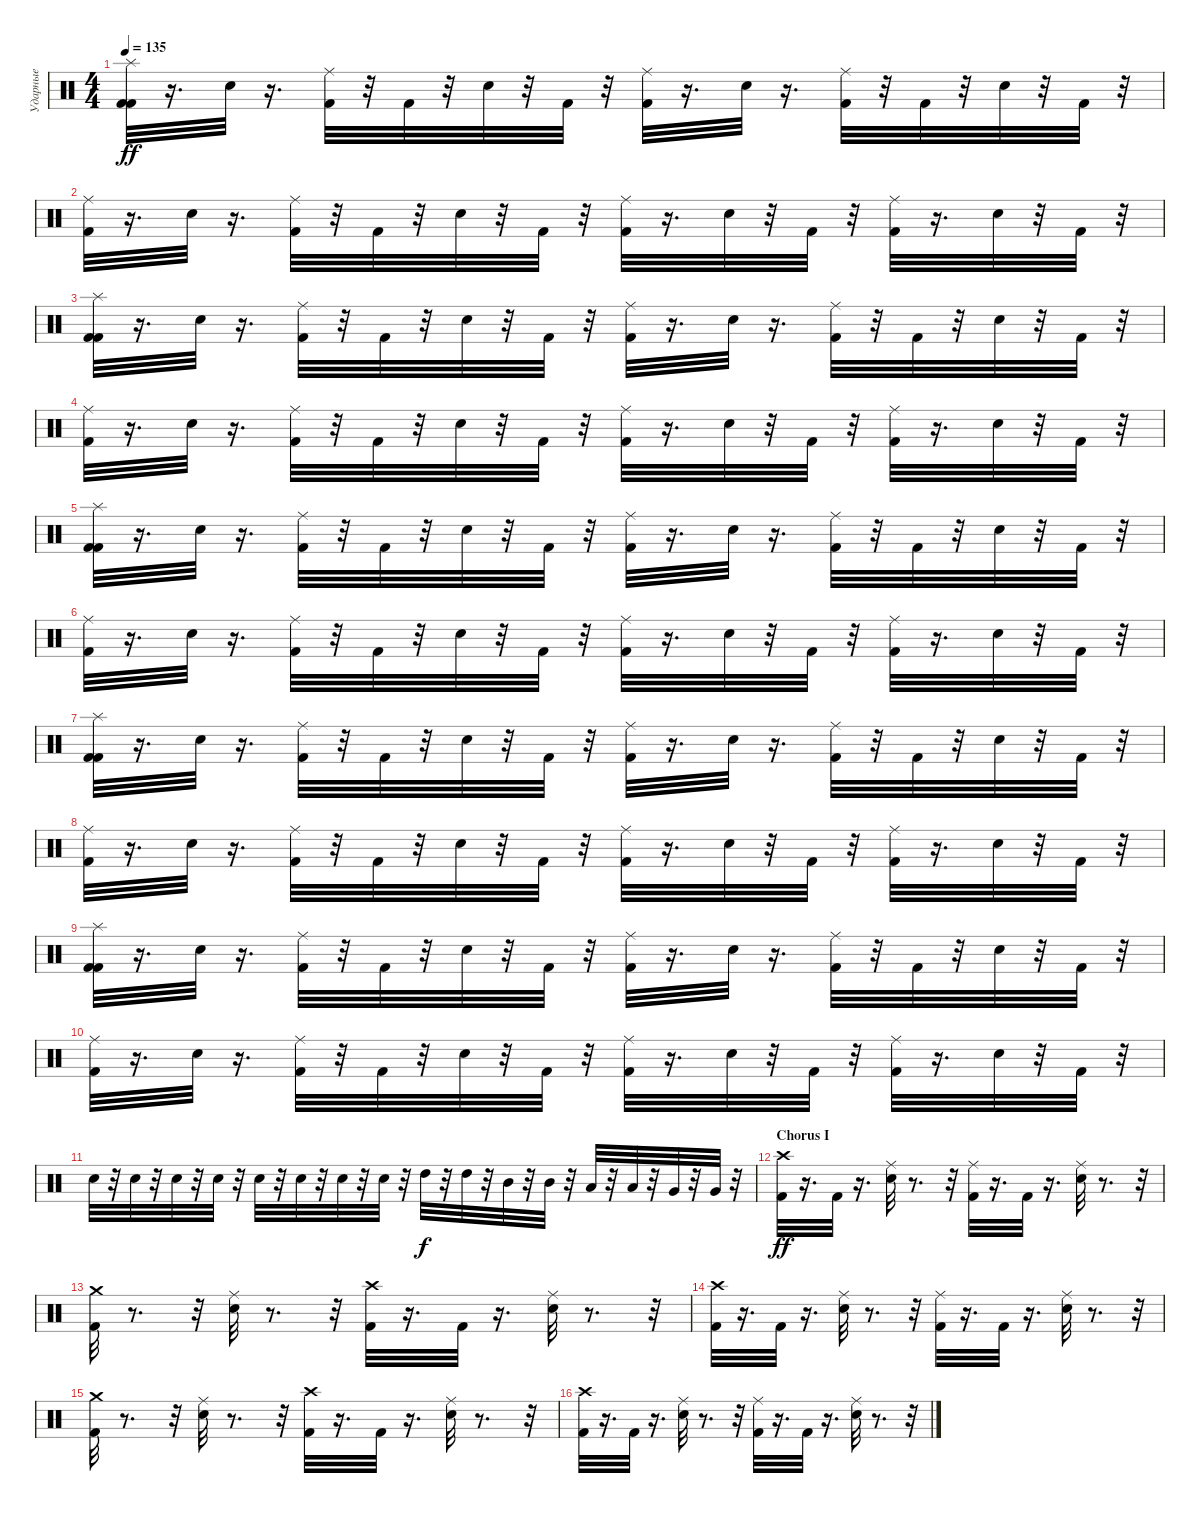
\track ("Ударные" "Ударные") {instrument percussion}
\staff {score}
\articulation defaults
\ts (4 4)
\tempo 135
\clef neutral
\ks c
("Splash (hit)" "Kick (hit) 2" "Kick (hit) 2").32{dy ff} r.16{d} "Electric Snare (hit)".32 r.16{d} ("Kick (hit) 2" "Ride (middle)").32 r.32 "Kick (hit) 2".32 r.32 "Electric Snare (hit)".32 r.32 "Kick (hit) 2".32 r.32 ("Kick (hit) 2" "Ride (middle)").32 r.16{d} "Electric Snare (hit)".32 r.16{d} ("Ride (middle)" "Kick (hit) 2").32 r.32 "Kick (hit) 2".32 r.32 "Electric Snare (hit)".32 r.32 "Kick (hit) 2".32 r.32 |
("Ride (middle)" "Kick (hit) 2").32 r.16{d} "Electric Snare (hit)".32 r.16{d} ("Ride (middle)" "Kick (hit) 2").32 r.32 "Kick (hit) 2".32 r.32 "Electric Snare (hit)".32 r.32 "Kick (hit) 2".32 r.32 ("Kick (hit) 2" "Ride (middle)").32 r.16{d} "Electric Snare (hit)".32 r.32 "Kick (hit) 2".32 r.32 ("Ride (middle)" "Kick (hit) 2").32 r.16{d} "Electric Snare (hit)".32 r.32 "Kick (hit) 2".32 r.32 |
("Kick (hit) 2" "Kick (hit) 2" "Splash (hit)").32 r.16{d} "Electric Snare (hit)".32 r.16{d} ("Ride (middle)" "Kick (hit) 2").32 r.32 "Kick (hit) 2".32 r.32 "Electric Snare (hit)".32 r.32 "Kick (hit) 2".32 r.32 ("Ride (middle)" "Kick (hit) 2").32 r.16{d} "Electric Snare (hit)".32 r.16{d} ("Ride (middle)" "Kick (hit) 2").32 r.32 "Kick (hit) 2".32 r.32 "Electric Snare (hit)".32 r.32 "Kick (hit) 2".32 r.32 |
("Ride (middle)" "Kick (hit) 2").32 r.16{d} "Electric Snare (hit)".32 r.16{d} ("Ride (middle)" "Kick (hit) 2").32 r.32 "Kick (hit) 2".32 r.32 "Electric Snare (hit)".32 r.32 "Kick (hit) 2".32 r.32 ("Ride (middle)" "Kick (hit) 2").32 r.16{d} "Electric Snare (hit)".32 r.32 "Kick (hit) 2".32 r.32 ("Ride (middle)" "Kick (hit) 2").32 r.16{d} "Electric Snare (hit)".32 r.32 "Kick (hit) 2".32 r.32 |
("Splash (hit)" "Kick (hit) 2" "Kick (hit) 2").32 r.16{d} "Electric Snare (hit)".32 r.16{d} ("Kick (hit) 2" "Ride (middle)").32 r.32 "Kick (hit) 2".32 r.32 "Electric Snare (hit)".32 r.32 "Kick (hit) 2".32 r.32 ("Kick (hit) 2" "Ride (middle)").32 r.16{d} "Electric Snare (hit)".32 r.16{d} ("Ride (middle)" "Kick (hit) 2").32 r.32 "Kick (hit) 2".32 r.32 "Electric Snare (hit)".32 r.32 "Kick (hit) 2".32 r.32 |
("Ride (middle)" "Kick (hit) 2").32 r.16{d} "Electric Snare (hit)".32 r.16{d} ("Ride (middle)" "Kick (hit) 2").32 r.32 "Kick (hit) 2".32 r.32 "Electric Snare (hit)".32 r.32 "Kick (hit) 2".32 r.32 ("Kick (hit) 2" "Ride (middle)").32 r.16{d} "Electric Snare (hit)".32 r.32 "Kick (hit) 2".32 r.32 ("Ride (middle)" "Kick (hit) 2").32 r.16{d} "Electric Snare (hit)".32 r.32 "Kick (hit) 2".32 r.32 |
("Kick (hit) 2" "Kick (hit) 2" "Splash (hit)").32 r.16{d} "Electric Snare (hit)".32 r.16{d} ("Ride (middle)" "Kick (hit) 2").32 r.32 "Kick (hit) 2".32 r.32 "Electric Snare (hit)".32 r.32 "Kick (hit) 2".32 r.32 ("Ride (middle)" "Kick (hit) 2").32 r.16{d} "Electric Snare (hit)".32 r.16{d} ("Ride (middle)" "Kick (hit) 2").32 r.32 "Kick (hit) 2".32 r.32 "Electric Snare (hit)".32 r.32 "Kick (hit) 2".32 r.32 |
("Ride (middle)" "Kick (hit) 2").32 r.16{d} "Electric Snare (hit)".32 r.16{d} ("Ride (middle)" "Kick (hit) 2").32 r.32 "Kick (hit) 2".32 r.32 "Electric Snare (hit)".32 r.32 "Kick (hit) 2".32 r.32 ("Ride (middle)" "Kick (hit) 2").32 r.16{d} "Electric Snare (hit)".32 r.32 "Kick (hit) 2".32 r.32 ("Ride (middle)" "Kick (hit) 2").32 r.16{d} "Electric Snare (hit)".32 r.32 "Kick (hit) 2".32 r.32 |
("Kick (hit) 2" "Kick (hit) 2" "Splash (hit)").32 r.16{d} "Electric Snare (hit)".32 r.16{d} ("Ride (middle)" "Kick (hit) 2").32 r.32 "Kick (hit) 2".32 r.32 "Electric Snare (hit)".32 r.32 "Kick (hit) 2".32 r.32 ("Ride (middle)" "Kick (hit) 2").32 r.16{d} "Electric Snare (hit)".32 r.16{d} ("Ride (middle)" "Kick (hit) 2").32 r.32 "Kick (hit) 2".32 r.32 "Electric Snare (hit)".32 r.32 "Kick (hit) 2".32 r.32 |
("Ride (middle)" "Kick (hit) 2").32 r.16{d} "Electric Snare (hit)".32 r.16{d} ("Ride (middle)" "Kick (hit) 2").32 r.32 "Kick (hit) 2".32 r.32 "Electric Snare (hit)".32 r.32 "Kick (hit) 2".32 r.32 ("Ride (middle)" "Kick (hit) 2").32 r.16{d} "Electric Snare (hit)".32 r.32 "Kick (hit) 2".32 r.32 ("Ride (middle)" "Kick (hit) 2").32 r.16{d} "Electric Snare (hit)".32 r.32 "Kick (hit) 2".32 r.32 |
"Electric Snare (hit)".32 r.32 "Electric Snare (hit)".32 r.32 "Electric Snare (hit)".32 r.32 "Electric Snare (hit)".32 r.32 "Electric Snare (hit)".32 r.32 "Electric Snare (hit)".32 r.32 "Electric Snare (hit)".32 r.32 "Electric Snare (hit)".32 r.32 "High Tom (hit)".32{dy f} r.32 "High Tom (hit)".32 r.32 "Mid Tom (hit)".32 r.32 "Mid Tom (hit)".32 r.32 "Low Tom (hit)".32 r.32 "Low Tom (hit)".32 r.32 "Very Low Tom (hit)".32 r.32 "Very Low Tom (hit)".32 r.32 |
\section ("" "Chorus I")
("Crash high (hit)" "Kick (hit) 2").32{dy ff} r.16{d} "Kick (hit) 2".32 r.16{d} ("Ride (middle)" "Electric Snare (hit)").32 r.8{d} r.32 ("Ride (middle)" "Kick (hit) 2").32 r.16{d} "Kick (hit) 2".32 r.16{d} ("Ride (middle)" "Electric Snare (hit)").32 r.8{d} r.32 |
("Crash medium (hit)" "Kick (hit) 2").32 r.8{d} r.32 ("Ride (middle)" "Electric Snare (hit)").32 r.8{d} r.32 ("Crash high (hit)" "Kick (hit) 2").32 r.16{d} "Kick (hit) 2".32 r.16{d} ("Ride (middle)" "Electric Snare (hit)").32 r.8{d} r.32 |
("Crash high (hit)" "Kick (hit) 2").32 r.16{d} "Kick (hit) 2".32 r.16{d} ("Ride (middle)" "Electric Snare (hit)").32 r.8{d} r.32 ("Ride (middle)" "Kick (hit) 2").32 r.16{d} "Kick (hit) 2".32 r.16{d} ("Ride (middle)" "Electric Snare (hit)").32 r.8{d} r.32 |
("Kick (hit) 2" "Crash medium (hit)").32 r.8{d} r.32 ("Electric Snare (hit)" "Ride (middle)").32 r.8{d} r.32 ("Kick (hit) 2" "Crash high (hit)").32 r.16{d} "Kick (hit) 2".32 r.16{d} ("Electric Snare (hit)" "Ride (middle)").32 r.8{d} r.32 |
("Crash high (hit)" "Kick (hit) 2").32 r.16{d} "Kick (hit) 2".32 r.16{d} ("Ride (middle)" "Electric Snare (hit)").32 r.8{d} r.32 ("Ride (middle)" "Kick (hit) 2").32 r.16{d} "Kick (hit) 2".32 r.16{d} ("Ride (middle)" "Electric Snare (hit)").32 r.8{d} r.32
